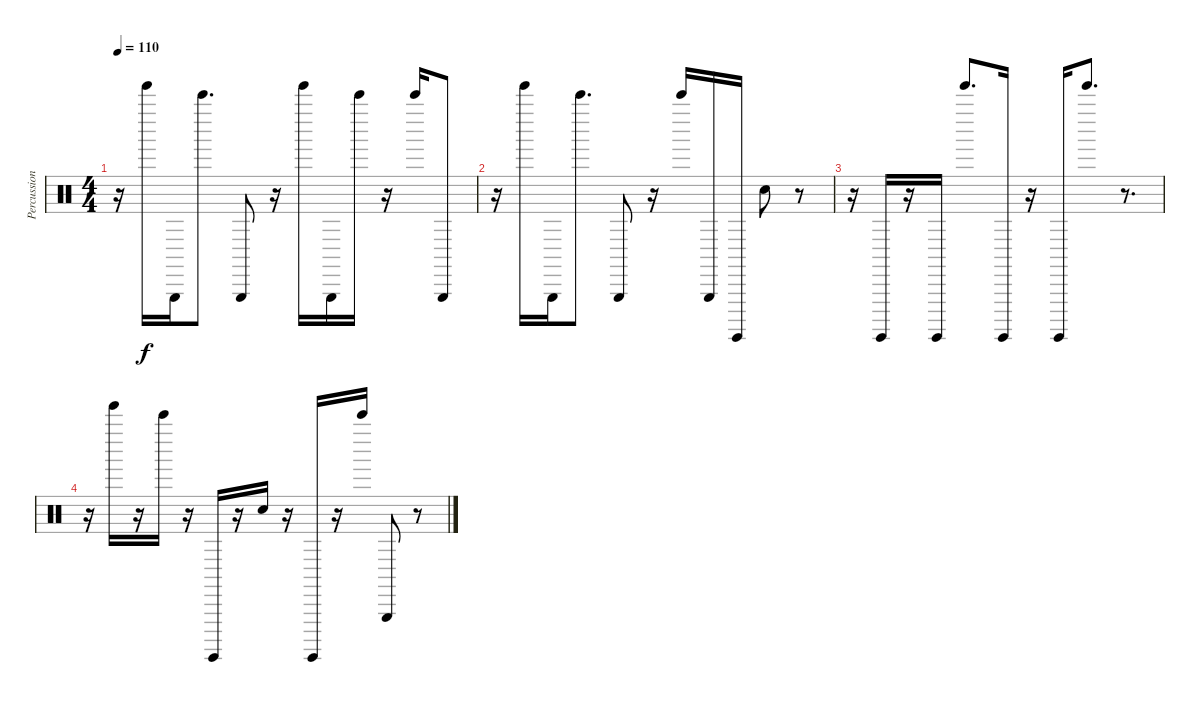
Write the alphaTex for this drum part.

\track ("Percussion" "Percussion") {instrument percussion}
\staff {score}
\articulation defaults
\ts (4 4)
\tempo 110
\clef neutral
\ks c
r.16{dy f} "Tinkle Bell (hit)".16 "Triangle (hit)".16 "Bell Tree (hit)".8{d} "Triangle (hit)".8 r.16 "Tinkle Bell (hit)".16 "Triangle (hit)".16 "Bell Tree (hit)".16 r.16 "Bell Tree (hit)".16 "Triangle (hit)".8 |
r.16 "Tinkle Bell (hit)".16 "Triangle (hit)".16 "Bell Tree (hit)".8{d} "Triangle (hit)".8 r.16 "Bell Tree (hit)".16 "Triangle (hit)".16 "Surdo (hit)".16 "Snare (hit)".8 r.8 |
r.16 "Surdo (hit)".16 r.16 "Surdo (hit)".16 "Tinkle Bell (hit)".8{d} "Surdo (hit)".16 r.16 "Surdo (hit)".16 "Tinkle Bell (hit)".8{d} r.8{d} |
r.16 "Tinkle Bell (hit)".16 r.16 "Bell Tree (hit)".16 r.16 "Surdo (hit)".16 r.16 "Snare (hit)".16 r.16 "Surdo (hit)".16 r.16 "Bell Tree (hit)".16 "Triangle (hit)".8 r.8
